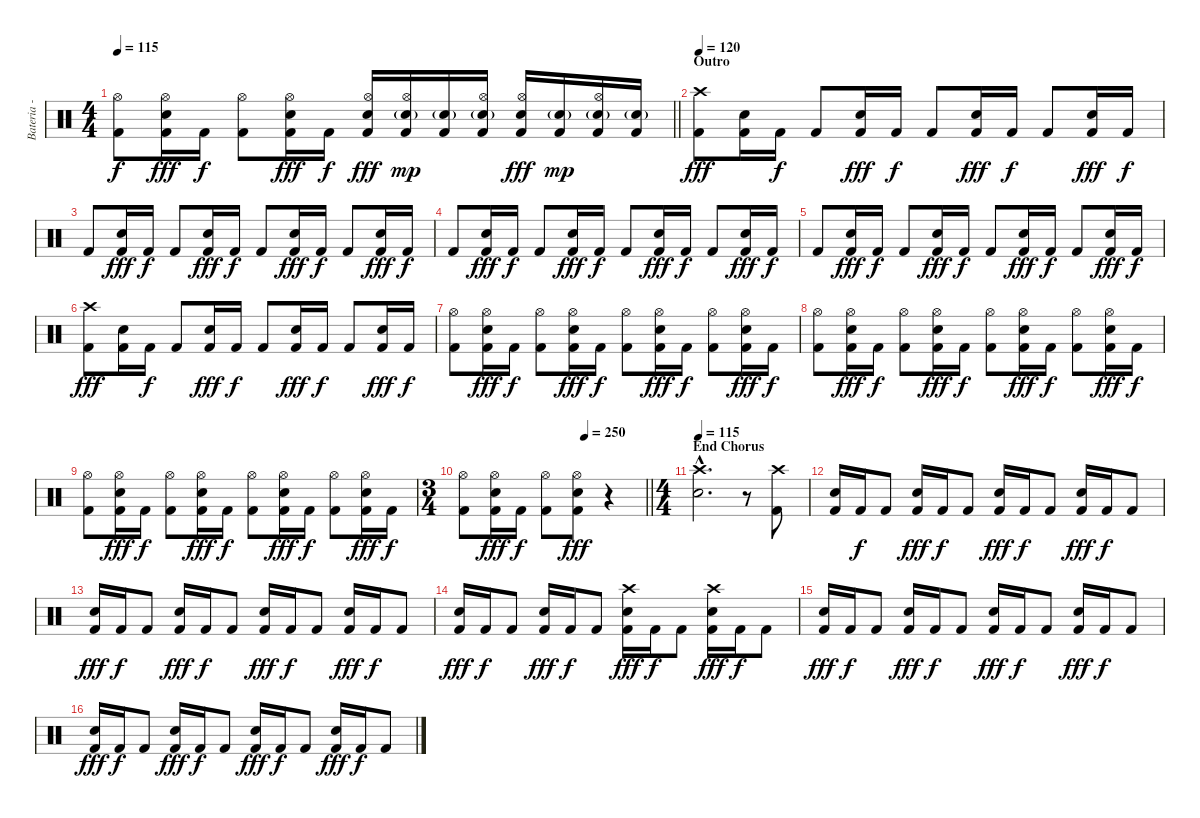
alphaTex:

\track ("Bateria - Larzon" "Bateria - ") {instrument percussion}
\staff {score}
\articulation defaults
\ts (4 4)
\tempo 115
\clef neutral
\barLineRight lightlight
\ks c
("Kick (hit) 2" "Hi-Hat (open)").8{dy f} ("Kick (hit) 2" "Hi-Hat (open)" "Electric Snare (hit)").16{dy fff} "Kick (hit) 2".16{dy f} ("Kick (hit) 2" "Hi-Hat (open)").8 ("Kick (hit) 2" "Hi-Hat (open)" "Electric Snare (hit)").16{dy fff} "Kick (hit) 2".16{dy f} ("Kick (hit) 2" "Hi-Hat (open)" "Electric Snare (hit)").16{dy fff} ("Kick (hit) 2" "Hi-Hat (open)" "Electric Snare (hit)"{g}).16{dy mp} ("Kick (hit) 2" "Electric Snare (hit)"{g}).16 ("Kick (hit) 2" "Hi-Hat (open)" "Electric Snare (hit)"{g}).16 ("Kick (hit) 2" "Hi-Hat (open)" "Snare (hit) 2").16{dy fff} ("Kick (hit) 2" "Snare (hit) 2"{g}).16{dy mp} ("Kick (hit) 2" "Hi-Hat (open)" "Snare (hit) 2"{g}).16 ("Kick (hit) 2" "Snare (hit) 2"{g}).16 |
\section ("" "Outro")
\tempo 120
("Kick (hit) 2" "Crash high (hit)").8{dy fff} ("Kick (hit) 2" "Electric Snare (hit)").16 "Kick (hit) 2".16{dy f} "Kick (hit) 2".8 ("Kick (hit) 2" "Electric Snare (hit)").16{dy fff} "Kick (hit) 2".16{dy f} "Kick (hit) 2".8 ("Kick (hit) 2" "Electric Snare (hit)").16{dy fff} "Kick (hit) 2".16{dy f} "Kick (hit) 2".8 ("Kick (hit) 2" "Electric Snare (hit)").16{dy fff} "Kick (hit) 2".16{dy f} |
"Kick (hit) 2".8 ("Kick (hit) 2" "Electric Snare (hit)").16{dy fff} "Kick (hit) 2".16{dy f} "Kick (hit) 2".8 ("Kick (hit) 2" "Electric Snare (hit)").16{dy fff} "Kick (hit) 2".16{dy f} "Kick (hit) 2".8 ("Kick (hit) 2" "Electric Snare (hit)").16{dy fff} "Kick (hit) 2".16{dy f} "Kick (hit) 2".8 ("Kick (hit) 2" "Electric Snare (hit)").16{dy fff} "Kick (hit) 2".16{dy f} |
"Kick (hit) 2".8 ("Kick (hit) 2" "Electric Snare (hit)").16{dy fff} "Kick (hit) 2".16{dy f} "Kick (hit) 2".8 ("Kick (hit) 2" "Electric Snare (hit)").16{dy fff} "Kick (hit) 2".16{dy f} "Kick (hit) 2".8 ("Kick (hit) 2" "Electric Snare (hit)").16{dy fff} "Kick (hit) 2".16{dy f} "Kick (hit) 2".8 ("Kick (hit) 2" "Electric Snare (hit)").16{dy fff} "Kick (hit) 2".16{dy f} |
"Kick (hit) 2".8 ("Kick (hit) 2" "Electric Snare (hit)").16{dy fff} "Kick (hit) 2".16{dy f} "Kick (hit) 2".8 ("Kick (hit) 2" "Electric Snare (hit)").16{dy fff} "Kick (hit) 2".16{dy f} "Kick (hit) 2".8 ("Kick (hit) 2" "Electric Snare (hit)").16{dy fff} "Kick (hit) 2".16{dy f} "Kick (hit) 2".8 ("Kick (hit) 2" "Electric Snare (hit)").16{dy fff} "Kick (hit) 2".16{dy f} |
("Kick (hit) 2" "Crash high (hit)").8{dy fff} ("Kick (hit) 2" "Electric Snare (hit)").16 "Kick (hit) 2".16{dy f} "Kick (hit) 2".8 ("Kick (hit) 2" "Electric Snare (hit)").16{dy fff} "Kick (hit) 2".16{dy f} "Kick (hit) 2".8 ("Kick (hit) 2" "Electric Snare (hit)").16{dy fff} "Kick (hit) 2".16{dy f} "Kick (hit) 2".8 ("Kick (hit) 2" "Electric Snare (hit)").16{dy fff} "Kick (hit) 2".16{dy f} |
("Kick (hit) 2" "Hi-Hat (open)").8 ("Kick (hit) 2" "Hi-Hat (open)" "Electric Snare (hit)").16{dy fff} "Kick (hit) 2".16{dy f} ("Kick (hit) 2" "Hi-Hat (open)").8 ("Kick (hit) 2" "Hi-Hat (open)" "Electric Snare (hit)").16{dy fff} "Kick (hit) 2".16{dy f} ("Kick (hit) 2" "Hi-Hat (open)").8 ("Kick (hit) 2" "Hi-Hat (open)" "Electric Snare (hit)").16{dy fff} "Kick (hit) 2".16{dy f} ("Kick (hit) 2" "Hi-Hat (open)").8 ("Kick (hit) 2" "Hi-Hat (open)" "Electric Snare (hit)").16{dy fff} "Kick (hit) 2".16{dy f} |
("Kick (hit) 2" "Hi-Hat (open)").8 ("Kick (hit) 2" "Hi-Hat (open)" "Electric Snare (hit)").16{dy fff} "Kick (hit) 2".16{dy f} ("Kick (hit) 2" "Hi-Hat (open)").8 ("Kick (hit) 2" "Hi-Hat (open)" "Electric Snare (hit)").16{dy fff} "Kick (hit) 2".16{dy f} ("Kick (hit) 2" "Hi-Hat (open)").8 ("Kick (hit) 2" "Hi-Hat (open)" "Electric Snare (hit)").16{dy fff} "Kick (hit) 2".16{dy f} ("Kick (hit) 2" "Hi-Hat (open)").8 ("Kick (hit) 2" "Hi-Hat (open)" "Electric Snare (hit)").16{dy fff} "Kick (hit) 2".16{dy f} |
("Kick (hit) 2" "Hi-Hat (open)").8 ("Kick (hit) 2" "Hi-Hat (open)" "Electric Snare (hit)").16{dy fff} "Kick (hit) 2".16{dy f} ("Kick (hit) 2" "Hi-Hat (open)").8 ("Kick (hit) 2" "Hi-Hat (open)" "Electric Snare (hit)").16{dy fff} "Kick (hit) 2".16{dy f} ("Kick (hit) 2" "Hi-Hat (open)").8 ("Kick (hit) 2" "Hi-Hat (open)" "Electric Snare (hit)").16{dy fff} "Kick (hit) 2".16{dy f} ("Kick (hit) 2" "Hi-Hat (open)").8 ("Kick (hit) 2" "Hi-Hat (open)" "Electric Snare (hit)").16{dy fff} "Kick (hit) 2".16{dy f} |
\ts (3 4)
\tempo (250 0.6666666666666666)
\barLineRight lightlight
("Kick (hit) 2" "Hi-Hat (open)").8 ("Kick (hit) 2" "Hi-Hat (open)" "Electric Snare (hit)").16{dy fff} "Kick (hit) 2".16{dy f} ("Kick (hit) 2" "Hi-Hat (open)").8 ("Kick (hit) 2" "Hi-Hat (open)" "Snare (hit) 2").8{dy fff} r.4 |
\ts (4 4)
\section ("" "End Chorus")
\tempo 115
("Crash high (hit)"{hac} "Electric Snare (hit)"{hac}).2{d} r.8 ("Kick (hit) 2" "Crash high (hit)").8 |
("Kick (hit) 2" "Electric Snare (hit)").16 "Kick (hit) 2".16{dy f} "Kick (hit) 2".8 ("Kick (hit) 2" "Electric Snare (hit)").16{dy fff} "Kick (hit) 2".16{dy f} "Kick (hit) 2".8 ("Kick (hit) 2" "Electric Snare (hit)").16{dy fff} "Kick (hit) 2".16{dy f} "Kick (hit) 2".8 ("Kick (hit) 2" "Electric Snare (hit)").16{dy fff} "Kick (hit) 2".16{dy f} "Kick (hit) 2".8 |
("Kick (hit) 2" "Electric Snare (hit)").16{dy fff} "Kick (hit) 2".16{dy f} "Kick (hit) 2".8 ("Kick (hit) 2" "Electric Snare (hit)").16{dy fff} "Kick (hit) 2".16{dy f} "Kick (hit) 2".8 ("Kick (hit) 2" "Electric Snare (hit)").16{dy fff} "Kick (hit) 2".16{dy f} "Kick (hit) 2".8 ("Kick (hit) 2" "Electric Snare (hit)").16{dy fff} "Kick (hit) 2".16{dy f} "Kick (hit) 2".8 |
("Kick (hit) 2" "Electric Snare (hit)").16{dy fff} "Kick (hit) 2".16{dy f} "Kick (hit) 2".8 ("Kick (hit) 2" "Electric Snare (hit)").16{dy fff} "Kick (hit) 2".16{dy f} "Kick (hit) 2".8 ("Kick (hit) 2" "Crash high (hit)" "Electric Snare (hit)").16{dy fff} "Kick (hit) 2".16{dy f} "Kick (hit) 2".8 ("Kick (hit) 2" "Crash high (hit)" "Electric Snare (hit)").16{dy fff} "Kick (hit) 2".16{dy f} "Kick (hit) 2".8 |
("Kick (hit) 2" "Electric Snare (hit)").16{dy fff} "Kick (hit) 2".16{dy f} "Kick (hit) 2".8 ("Kick (hit) 2" "Electric Snare (hit)").16{dy fff} "Kick (hit) 2".16{dy f} "Kick (hit) 2".8 ("Kick (hit) 2" "Electric Snare (hit)").16{dy fff} "Kick (hit) 2".16{dy f} "Kick (hit) 2".8 ("Kick (hit) 2" "Electric Snare (hit)").16{dy fff} "Kick (hit) 2".16{dy f} "Kick (hit) 2".8 |
("Kick (hit) 2" "Electric Snare (hit)").16{dy fff} "Kick (hit) 2".16{dy f} "Kick (hit) 2".8 ("Kick (hit) 2" "Electric Snare (hit)").16{dy fff} "Kick (hit) 2".16{dy f} "Kick (hit) 2".8 ("Kick (hit) 2" "Electric Snare (hit)").16{dy fff} "Kick (hit) 2".16{dy f} "Kick (hit) 2".8 ("Kick (hit) 2" "Electric Snare (hit)").16{dy fff} "Kick (hit) 2".16{dy f} "Kick (hit) 2".8
